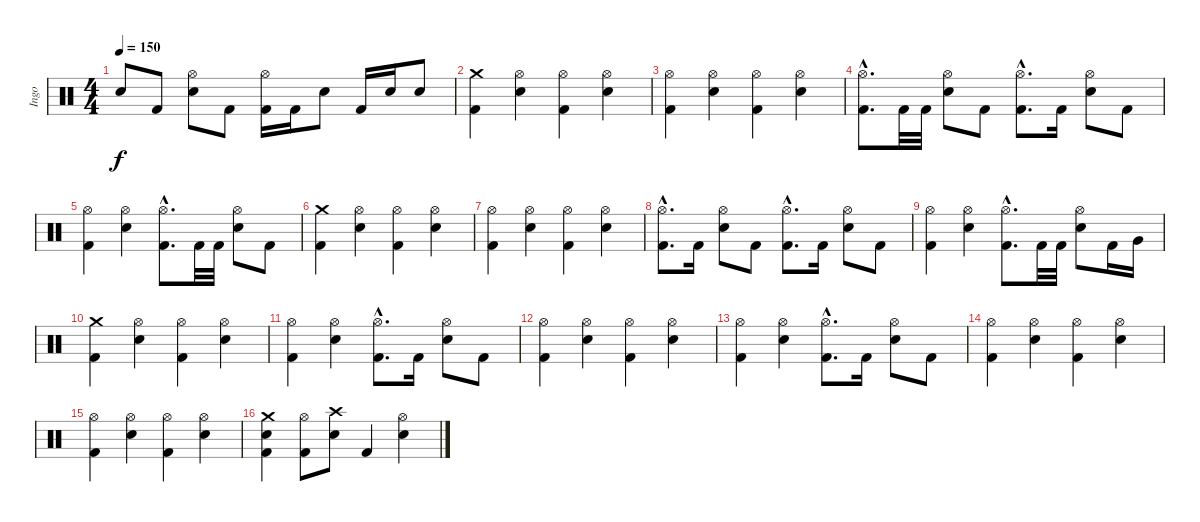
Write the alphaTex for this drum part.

\track ("Ingo" "Ingo") {instrument percussion}
\staff {score}
\articulation defaults
\ts (4 4)
\tempo 150
\clef neutral
\ks c "Snare (hit)"{t}.8{dy f} "Kick (hit) 2".8
("Hi-Hat (open)" "Electric Snare (hit)").8 "Kick (hit) 2".8 ("Hi-Hat (open)" "Kick (hit) 2").16 "Kick (hit) 2".16 "Electric Snare (hit)".8 "Kick (hit) 2".16 "Electric Snare (hit)".16 "Electric Snare (hit)".8 |
("Crash medium (hit)" "Kick (hit) 2").4 ("Hi-Hat (open)" "Electric Snare (hit)").4 ("Hi-Hat (open)" "Kick (hit) 2").4 ("Hi-Hat (open)" "Electric Snare (hit)").4 |
("Hi-Hat (open)" "Kick (hit) 2").4 ("Hi-Hat (open)" "Electric Snare (hit)").4 ("Hi-Hat (open)" "Kick (hit) 2").4 ("Hi-Hat (open)" "Electric Snare (hit)").4 |
("Hi-Hat (open)"{hac} "Kick (hit) 2"{hac}).8{d} "Kick (hit) 2".32 "Kick (hit) 2".32 ("Hi-Hat (open)" "Electric Snare (hit)").8 "Kick (hit) 2".8 ("Hi-Hat (open)"{hac} "Kick (hit) 2"{hac}).8{d} "Kick (hit) 2".16 ("Hi-Hat (open)" "Electric Snare (hit)").8 "Kick (hit) 2".8 |
("Hi-Hat (open)" "Kick (hit) 2").4 ("Hi-Hat (open)" "Electric Snare (hit)").4 ("Hi-Hat (open)"{hac} "Kick (hit) 2"{hac}).8{d} "Kick (hit) 2".32 "Kick (hit) 2".32 ("Hi-Hat (open)" "Electric Snare (hit)").8 "Kick (hit) 2".8 |
("Crash medium (hit)" "Kick (hit) 2").4 ("Hi-Hat (open)" "Electric Snare (hit)").4 ("Hi-Hat (open)" "Kick (hit) 2").4 ("Hi-Hat (open)" "Electric Snare (hit)").4 |
("Hi-Hat (open)" "Kick (hit) 2").4 ("Hi-Hat (open)" "Electric Snare (hit)").4 ("Hi-Hat (open)" "Kick (hit) 2").4 ("Hi-Hat (open)" "Electric Snare (hit)").4 |
("Hi-Hat (open)"{hac} "Kick (hit) 2"{hac}).8{d} "Kick (hit) 2".16 ("Hi-Hat (open)" "Electric Snare (hit)").8 "Kick (hit) 2".8 ("Hi-Hat (open)"{hac} "Kick (hit) 2"{hac}).8{d} "Kick (hit) 2".16 ("Hi-Hat (open)" "Electric Snare (hit)").8 "Kick (hit) 2".8 |
("Hi-Hat (open)" "Kick (hit) 2").4 ("Hi-Hat (open)" "Electric Snare (hit)").4 ("Hi-Hat (open)"{hac} "Kick (hit) 2"{hac}).8{d} "Kick (hit) 2".32 "Kick (hit) 2".32 ("Hi-Hat (open)" "Electric Snare (hit)").8 "Kick (hit) 2".16 "Very Low Tom (hit)".16 |
("Crash medium (hit)" "Kick (hit) 2").4 ("Hi-Hat (open)" "Electric Snare (hit)").4 ("Hi-Hat (open)" "Kick (hit) 2").4 ("Hi-Hat (open)" "Electric Snare (hit)").4 |
("Hi-Hat (open)" "Kick (hit) 2").4 ("Hi-Hat (open)" "Electric Snare (hit)").4 ("Hi-Hat (open)"{hac} "Kick (hit) 2"{hac}).8{d} "Kick (hit) 2".16 ("Hi-Hat (open)" "Electric Snare (hit)").8 "Kick (hit) 2".8 |
("Hi-Hat (open)" "Kick (hit) 2").4 ("Hi-Hat (open)" "Electric Snare (hit)").4 ("Hi-Hat (open)" "Kick (hit) 2").4 ("Hi-Hat (open)" "Electric Snare (hit)").4 |
("Hi-Hat (open)" "Kick (hit) 2").4 ("Hi-Hat (open)" "Electric Snare (hit)").4 ("Hi-Hat (open)"{hac} "Kick (hit) 2"{hac}).8{d} "Kick (hit) 2".16 ("Hi-Hat (open)" "Electric Snare (hit)").8 "Kick (hit) 2".8 |
("Hi-Hat (open)" "Kick (hit) 2").4 ("Hi-Hat (open)" "Electric Snare (hit)").4 ("Hi-Hat (open)" "Kick (hit) 2").4 ("Hi-Hat (open)" "Electric Snare (hit)").4 |
("Hi-Hat (open)" "Kick (hit) 2").4 ("Hi-Hat (open)" "Electric Snare (hit)").4 ("Hi-Hat (open)" "Kick (hit) 2").4 ("Hi-Hat (open)" "Electric Snare (hit)").4 |
("Crash medium (hit)" "Electric Snare (hit)" "Kick (hit) 2").4 ("Hi-Hat (open)" "Kick (hit) 2").8 ("Crash high (hit)" "Electric Snare (hit)").8 "Kick (hit) 2".4 ("Hi-Hat (open)" "Electric Snare (hit)").4
